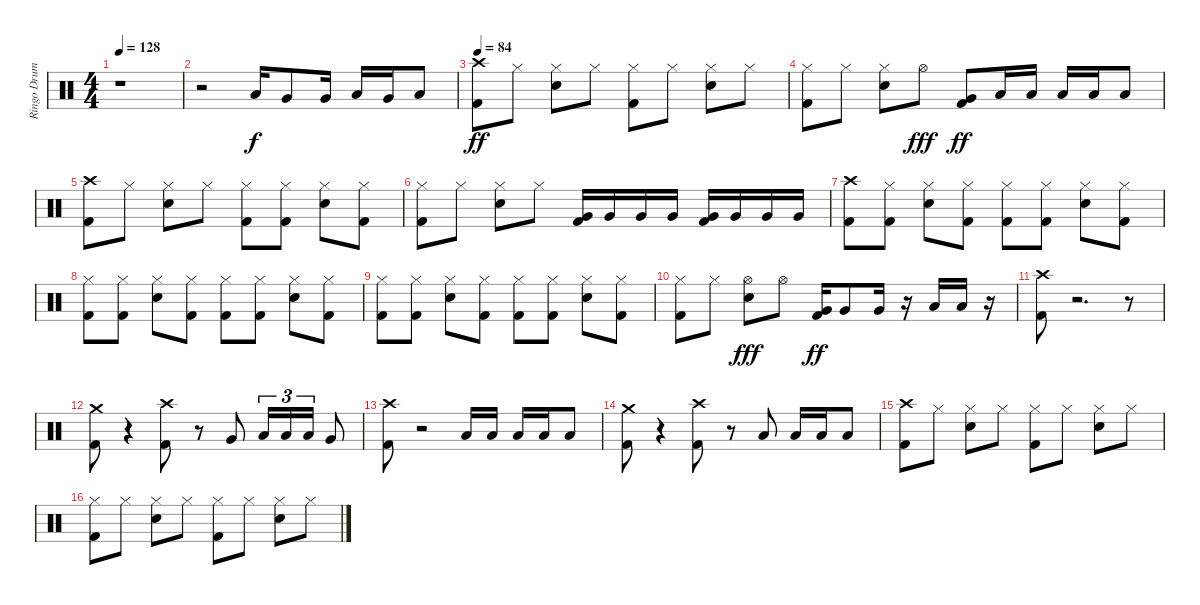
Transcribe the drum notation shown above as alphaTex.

\track ("Ringo Drums" "Ringo Drum") {instrument percussion}
\staff {score}
\articulation defaults
\ts (4 4)
\tempo 128
\clef neutral
\ks c
r.1{dy f} |
r.2 "Low Tom (hit)".16 "Very Low Tom (hit)".8 "Very Low Tom (hit)".16 "Low Tom (hit)".16 "Very Low Tom (hit)".16 "Low Tom (hit)".8 |
\tempo 84
("Crash high (hit)" "Kick (hit) 2").8{dy ff} "Hi-Hat (closed)".8 ("Hi-Hat (closed)" "Snare (hit) 2").8 "Hi-Hat (closed)".8 ("Hi-Hat (closed)" "Kick (hit) 2").8 "Hi-Hat (closed)".8 ("Hi-Hat (closed)" "Snare (hit) 2").8 "Hi-Hat (closed)".8 |
("Kick (hit) 2" "Hi-Hat (closed)").8 "Hi-Hat (closed)".8 ("Snare (hit) 2" "Hi-Hat (closed)").8 "Hi-Hat (open)".8{dy fff} ("Kick (hit) 2" "Very Low Tom (hit)").8{dy ff} "Low Floor Tom (hit)".16 "Low Floor Tom (hit)".16 "Low Floor Tom (hit)".16 "Low Floor Tom (hit)".16 "Low Floor Tom (hit)".8 |
("Kick (hit) 2" "Crash high (hit)").8 "Hi-Hat (closed)".8 ("Hi-Hat (closed)" "Snare (hit) 2").8 "Hi-Hat (closed)".8 ("Kick (hit) 2" "Hi-Hat (closed)").8 ("Kick (hit) 2" "Hi-Hat (closed)").8 ("Snare (hit) 2" "Hi-Hat (closed)").8 ("Kick (hit) 2" "Hi-Hat (closed)").8 |
("Kick (hit) 2" "Hi-Hat (closed)").8 "Hi-Hat (closed)".8 ("Snare (hit) 2" "Hi-Hat (closed)").8 "Hi-Hat (closed)".8 ("Kick (hit) 2" "Very Low Tom (hit)").16 "Very Low Tom (hit)".16 "Very Low Tom (hit)".16 "Very Low Tom (hit)".16 ("Very Low Tom (hit)" "Kick (hit) 2").16 "Very Low Tom (hit)".16 "Very Low Tom (hit)".16 "Very Low Tom (hit)".16 |
("Crash high (hit)" "Kick (hit) 2").8 ("Hi-Hat (closed)" "Kick (hit) 2").8 ("Snare (hit) 2" "Hi-Hat (closed)").8 ("Hi-Hat (closed)" "Kick (hit) 2").8 ("Hi-Hat (closed)" "Kick (hit) 2").8 ("Kick (hit) 2" "Hi-Hat (closed)").8 ("Snare (hit) 2" "Hi-Hat (closed)").8 ("Kick (hit) 2" "Hi-Hat (closed)").8 |
("Hi-Hat (closed)" "Kick (hit) 2").8 ("Hi-Hat (closed)" "Kick (hit) 2").8 ("Snare (hit) 2" "Hi-Hat (closed)").8 ("Kick (hit) 2" "Hi-Hat (closed)").8 ("Hi-Hat (closed)" "Kick (hit) 2").8 ("Kick (hit) 2" "Hi-Hat (closed)").8 ("Hi-Hat (closed)" "Snare (hit) 2").8 ("Hi-Hat (closed)" "Kick (hit) 2").8 |
("Hi-Hat (closed)" "Kick (hit) 2").8 ("Hi-Hat (closed)" "Kick (hit) 2").8 ("Snare (hit) 2" "Hi-Hat (closed)").8 ("Kick (hit) 2" "Hi-Hat (closed)").8 ("Hi-Hat (closed)" "Kick (hit) 2").8 ("Hi-Hat (closed)" "Kick (hit) 2").8 ("Snare (hit) 2" "Hi-Hat (closed)").8 ("Hi-Hat (closed)" "Kick (hit) 2").8 |
("Kick (hit) 2" "Hi-Hat (closed)").8 "Hi-Hat (closed)".8 ("Snare (hit) 2" "Hi-Hat (open)").8{dy fff} "Hi-Hat (open)".8 ("Kick (hit) 2" "Very Low Tom (hit)").16{dy ff} "Very Low Tom (hit)".8 "Very Low Tom (hit)".16 r.16 "Low Floor Tom (hit)".16 "Low Floor Tom (hit)".16 r.16 |
("Kick (hit) 2" "Crash high (hit)").8 r.2{d} r.8 |
("Kick (hit) 2" "Crash medium (hit)").8 r.4 ("Kick (hit) 2" "Crash high (hit)").8 r.8 "Very Low Tom (hit)".8 "Low Floor Tom (hit)".16{tu (3 2)} "Low Floor Tom (hit)".16{tu (3 2)} "Low Floor Tom (hit)".16{tu (3 2)} "Very Low Tom (hit)".8 |
("Crash high (hit)" "Kick (hit) 2").8 r.2 "Low Floor Tom (hit)".16 "Low Floor Tom (hit)".16 "Low Floor Tom (hit)".16 "Low Floor Tom (hit)".16 "Low Floor Tom (hit)".8 |
("Kick (hit) 2" "Crash medium (hit)").8 r.4 ("Kick (hit) 2" "Crash high (hit)").8 r.8 "Low Floor Tom (hit)".8 "Low Floor Tom (hit)".16 "Low Floor Tom (hit)".16 "Low Floor Tom (hit)".8 |
("Kick (hit) 2" "Crash high (hit)").8 "Hi-Hat (closed)".8 ("Hi-Hat (closed)" "Snare (hit) 2").8 "Hi-Hat (closed)".8 ("Kick (hit) 2" "Hi-Hat (closed)").8 "Hi-Hat (closed)".8 ("Snare (hit) 2" "Hi-Hat (closed)").8 "Hi-Hat (closed)".8 |
("Hi-Hat (closed)" "Kick (hit) 2").8 "Hi-Hat (closed)".8 ("Hi-Hat (closed)" "Snare (hit) 2").8 "Hi-Hat (closed)".8 ("Hi-Hat (closed)" "Kick (hit) 2").8 "Hi-Hat (closed)".8 ("Hi-Hat (closed)" "Snare (hit) 2").8 "Hi-Hat (closed)".8
